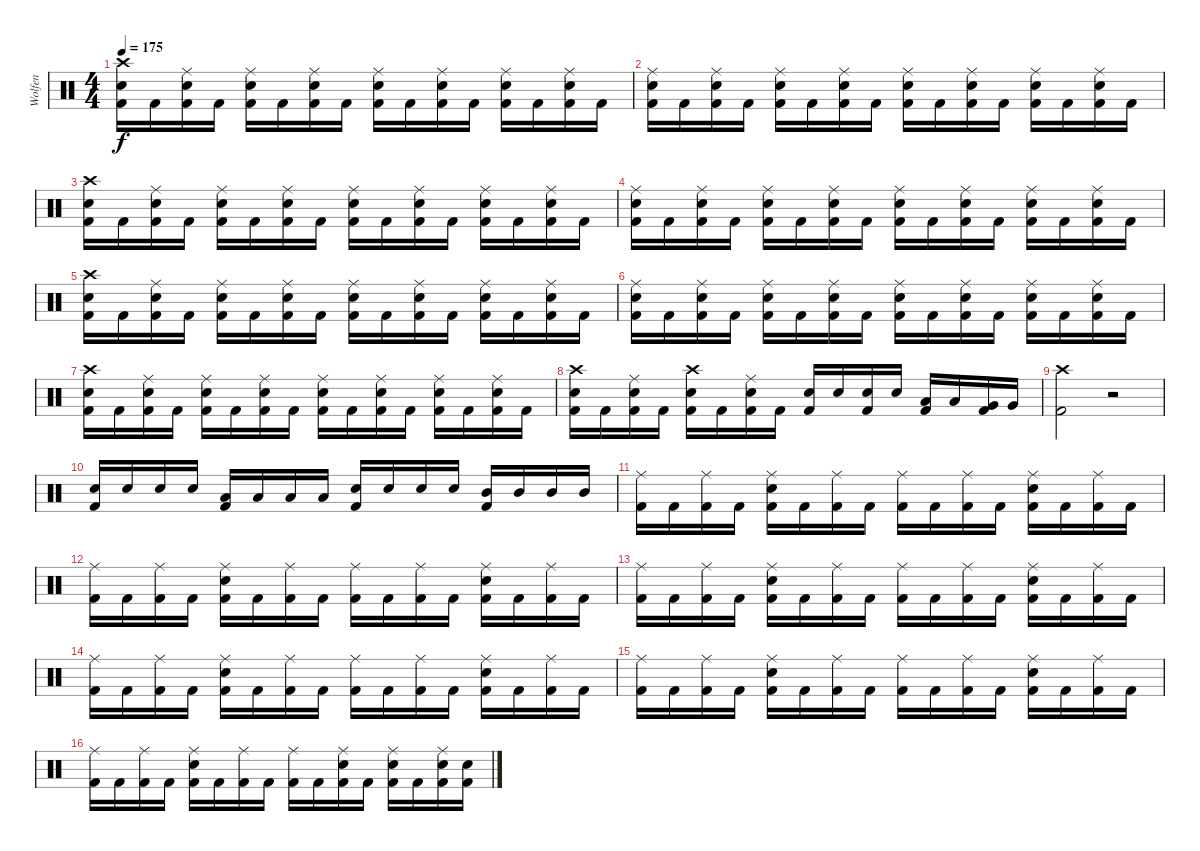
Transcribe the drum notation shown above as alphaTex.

\track ("Wolfen" "Wolfen") {instrument percussion}
\staff {score}
\articulation defaults
\ts (4 4)
\tempo 175
\clef neutral
\ks c
("Crash high (hit)" "Electric Snare (hit)" "Kick (hit) 2").16{dy f} "Kick (hit) 2".16 ("Ride (middle)" "Electric Snare (hit)" "Kick (hit) 2").16 "Kick (hit) 2".16 ("Ride (middle)" "Electric Snare (hit)" "Kick (hit) 2").16 "Kick (hit) 2".16 ("Ride (middle)" "Electric Snare (hit)" "Kick (hit) 2").16 "Kick (hit) 2".16 ("Ride (middle)" "Electric Snare (hit)" "Kick (hit) 2").16 "Kick (hit) 2".16 ("Ride (middle)" "Electric Snare (hit)" "Kick (hit) 2").16 "Kick (hit) 2".16 ("Ride (middle)" "Electric Snare (hit)" "Kick (hit) 2").16 "Kick (hit) 2".16 ("Ride (middle)" "Electric Snare (hit)" "Kick (hit) 2").16 "Kick (hit) 2".16 |
("Ride (middle)" "Electric Snare (hit)" "Kick (hit) 2").16 "Kick (hit) 2".16 ("Ride (middle)" "Electric Snare (hit)" "Kick (hit) 2").16 "Kick (hit) 2".16 ("Ride (middle)" "Electric Snare (hit)" "Kick (hit) 2").16 "Kick (hit) 2".16 ("Ride (middle)" "Electric Snare (hit)" "Kick (hit) 2").16 "Kick (hit) 2".16 ("Ride (middle)" "Electric Snare (hit)" "Kick (hit) 2").16 "Kick (hit) 2".16 ("Ride (middle)" "Electric Snare (hit)" "Kick (hit) 2").16 "Kick (hit) 2".16 ("Ride (middle)" "Electric Snare (hit)" "Kick (hit) 2").16 "Kick (hit) 2".16 ("Ride (middle)" "Electric Snare (hit)" "Kick (hit) 2").16 "Kick (hit) 2".16 |
("Crash high (hit)" "Electric Snare (hit)" "Kick (hit) 2").16 "Kick (hit) 2".16 ("Ride (middle)" "Electric Snare (hit)" "Kick (hit) 2").16 "Kick (hit) 2".16 ("Ride (middle)" "Electric Snare (hit)" "Kick (hit) 2").16 "Kick (hit) 2".16 ("Ride (middle)" "Electric Snare (hit)" "Kick (hit) 2").16 "Kick (hit) 2".16 ("Ride (middle)" "Electric Snare (hit)" "Kick (hit) 2").16 "Kick (hit) 2".16 ("Ride (middle)" "Electric Snare (hit)" "Kick (hit) 2").16 "Kick (hit) 2".16 ("Ride (middle)" "Electric Snare (hit)" "Kick (hit) 2").16 "Kick (hit) 2".16 ("Ride (middle)" "Electric Snare (hit)" "Kick (hit) 2").16 "Kick (hit) 2".16 |
("Ride (middle)" "Electric Snare (hit)" "Kick (hit) 2").16 "Kick (hit) 2".16 ("Ride (middle)" "Electric Snare (hit)" "Kick (hit) 2").16 "Kick (hit) 2".16 ("Ride (middle)" "Electric Snare (hit)" "Kick (hit) 2").16 "Kick (hit) 2".16 ("Ride (middle)" "Electric Snare (hit)" "Kick (hit) 2").16 "Kick (hit) 2".16 ("Ride (middle)" "Electric Snare (hit)" "Kick (hit) 2").16 "Kick (hit) 2".16 ("Ride (middle)" "Electric Snare (hit)" "Kick (hit) 2").16 "Kick (hit) 2".16 ("Ride (middle)" "Electric Snare (hit)" "Kick (hit) 2").16 "Kick (hit) 2".16 ("Ride (middle)" "Electric Snare (hit)" "Kick (hit) 2").16 "Kick (hit) 2".16 |
("Crash high (hit)" "Electric Snare (hit)" "Kick (hit) 2").16 "Kick (hit) 2".16 ("Ride (middle)" "Electric Snare (hit)" "Kick (hit) 2").16 "Kick (hit) 2".16 ("Ride (middle)" "Electric Snare (hit)" "Kick (hit) 2").16 "Kick (hit) 2".16 ("Ride (middle)" "Electric Snare (hit)" "Kick (hit) 2").16 "Kick (hit) 2".16 ("Ride (middle)" "Electric Snare (hit)" "Kick (hit) 2").16 "Kick (hit) 2".16 ("Ride (middle)" "Electric Snare (hit)" "Kick (hit) 2").16 "Kick (hit) 2".16 ("Ride (middle)" "Electric Snare (hit)" "Kick (hit) 2").16 "Kick (hit) 2".16 ("Ride (middle)" "Electric Snare (hit)" "Kick (hit) 2").16 "Kick (hit) 2".16 |
("Ride (middle)" "Electric Snare (hit)" "Kick (hit) 2").16 "Kick (hit) 2".16 ("Ride (middle)" "Electric Snare (hit)" "Kick (hit) 2").16 "Kick (hit) 2".16 ("Ride (middle)" "Electric Snare (hit)" "Kick (hit) 2").16 "Kick (hit) 2".16 ("Ride (middle)" "Electric Snare (hit)" "Kick (hit) 2").16 "Kick (hit) 2".16 ("Ride (middle)" "Electric Snare (hit)" "Kick (hit) 2").16 "Kick (hit) 2".16 ("Ride (middle)" "Electric Snare (hit)" "Kick (hit) 2").16 "Kick (hit) 2".16 ("Ride (middle)" "Electric Snare (hit)" "Kick (hit) 2").16 "Kick (hit) 2".16 ("Ride (middle)" "Electric Snare (hit)" "Kick (hit) 2").16 "Kick (hit) 2".16 |
("Crash high (hit)" "Electric Snare (hit)" "Kick (hit) 2").16 "Kick (hit) 2".16 ("Ride (middle)" "Electric Snare (hit)" "Kick (hit) 2").16 "Kick (hit) 2".16 ("Ride (middle)" "Electric Snare (hit)" "Kick (hit) 2").16 "Kick (hit) 2".16 ("Ride (middle)" "Electric Snare (hit)" "Kick (hit) 2").16 "Kick (hit) 2".16 ("Ride (middle)" "Electric Snare (hit)" "Kick (hit) 2").16 "Kick (hit) 2".16 ("Ride (middle)" "Electric Snare (hit)" "Kick (hit) 2").16 "Kick (hit) 2".16 ("Ride (middle)" "Electric Snare (hit)" "Kick (hit) 2").16 "Kick (hit) 2".16 ("Ride (middle)" "Electric Snare (hit)" "Kick (hit) 2").16 "Kick (hit) 2".16 |
("Crash high (hit)" "Electric Snare (hit)" "Kick (hit) 2").16 "Kick (hit) 2".16 ("Ride (middle)" "Electric Snare (hit)" "Kick (hit) 2").16 "Kick (hit) 2".16 ("Crash high (hit)" "Electric Snare (hit)" "Kick (hit) 2").16 "Kick (hit) 2".16 ("Ride (middle)" "Electric Snare (hit)" "Kick (hit) 2").16 "Kick (hit) 2".16 ("Electric Snare (hit)" "Kick (hit) 2").16 "Electric Snare (hit)".16 ("Electric Snare (hit)" "Kick (hit) 2").16 "Electric Snare (hit)".16 ("Low Tom (hit)" "Kick (hit) 2").16 "Low Tom (hit)".16 ("Very Low Tom (hit)" "Kick (hit) 2").16 "Very Low Tom (hit)".16 |
("Crash high (hit)" "Kick (hit) 2").2 r.2 |
("Electric Snare (hit)" "Kick (hit) 2").16 "Electric Snare (hit)".16 "Electric Snare (hit)".16 "Electric Snare (hit)".16 ("Low Tom (hit)" "Kick (hit) 2").16 "Low Tom (hit)".16 "Low Tom (hit)".16 "Low Tom (hit)".16 ("Electric Snare (hit)" "Kick (hit) 2").16 "Electric Snare (hit)".16 "Electric Snare (hit)".16 "Electric Snare (hit)".16 ("Mid Tom (hit)" "Kick (hit) 2").16 "Mid Tom (hit)".16 "Mid Tom (hit)".16 "Mid Tom (hit)".16 |
("Ride (middle)" "Kick (hit) 2").16 "Kick (hit) 2".16 ("Ride (middle)" "Kick (hit) 2").16 "Kick (hit) 2".16 ("Ride (middle)" "Electric Snare (hit)" "Kick (hit) 2").16 "Kick (hit) 2".16 ("Ride (middle)" "Kick (hit) 2").16 "Kick (hit) 2".16 ("Ride (middle)" "Kick (hit) 2").16 "Kick (hit) 2".16 ("Ride (middle)" "Kick (hit) 2").16 "Kick (hit) 2".16 ("Ride (middle)" "Electric Snare (hit)" "Kick (hit) 2").16 "Kick (hit) 2".16 ("Ride (middle)" "Kick (hit) 2").16 "Kick (hit) 2".16 |
("Ride (middle)" "Kick (hit) 2").16 "Kick (hit) 2".16 ("Ride (middle)" "Kick (hit) 2").16 "Kick (hit) 2".16 ("Ride (middle)" "Electric Snare (hit)" "Kick (hit) 2").16 "Kick (hit) 2".16 ("Ride (middle)" "Kick (hit) 2").16 "Kick (hit) 2".16 ("Ride (middle)" "Kick (hit) 2").16 "Kick (hit) 2".16 ("Ride (middle)" "Kick (hit) 2").16 "Kick (hit) 2".16 ("Ride (middle)" "Electric Snare (hit)" "Kick (hit) 2").16 "Kick (hit) 2".16 ("Ride (middle)" "Kick (hit) 2").16 "Kick (hit) 2".16 |
("Ride (middle)" "Kick (hit) 2").16 "Kick (hit) 2".16 ("Ride (middle)" "Kick (hit) 2").16 "Kick (hit) 2".16 ("Ride (middle)" "Electric Snare (hit)" "Kick (hit) 2").16 "Kick (hit) 2".16 ("Ride (middle)" "Kick (hit) 2").16 "Kick (hit) 2".16 ("Ride (middle)" "Kick (hit) 2").16 "Kick (hit) 2".16 ("Ride (middle)" "Kick (hit) 2").16 "Kick (hit) 2".16 ("Ride (middle)" "Electric Snare (hit)" "Kick (hit) 2").16 "Kick (hit) 2".16 ("Ride (middle)" "Kick (hit) 2").16 "Kick (hit) 2".16 |
("Ride (middle)" "Kick (hit) 2").16 "Kick (hit) 2".16 ("Ride (middle)" "Kick (hit) 2").16 "Kick (hit) 2".16 ("Ride (middle)" "Electric Snare (hit)" "Kick (hit) 2").16 "Kick (hit) 2".16 ("Ride (middle)" "Kick (hit) 2").16 "Kick (hit) 2".16 ("Ride (middle)" "Kick (hit) 2").16 "Kick (hit) 2".16 ("Ride (middle)" "Kick (hit) 2").16 "Kick (hit) 2".16 ("Ride (middle)" "Electric Snare (hit)" "Kick (hit) 2").16 "Kick (hit) 2".16 ("Ride (middle)" "Kick (hit) 2").16 "Kick (hit) 2".16 |
("Ride (middle)" "Kick (hit) 2").16 "Kick (hit) 2".16 ("Ride (middle)" "Kick (hit) 2").16 "Kick (hit) 2".16 ("Ride (middle)" "Electric Snare (hit)" "Kick (hit) 2").16 "Kick (hit) 2".16 ("Ride (middle)" "Kick (hit) 2").16 "Kick (hit) 2".16 ("Ride (middle)" "Kick (hit) 2").16 "Kick (hit) 2".16 ("Ride (middle)" "Kick (hit) 2").16 "Kick (hit) 2".16 ("Ride (middle)" "Electric Snare (hit)" "Kick (hit) 2").16 "Kick (hit) 2".16 ("Ride (middle)" "Kick (hit) 2").16 "Kick (hit) 2".16 |
("Ride (middle)" "Kick (hit) 2").16 "Kick (hit) 2".16 ("Ride (middle)" "Kick (hit) 2").16 "Kick (hit) 2".16 ("Ride (middle)" "Electric Snare (hit)" "Kick (hit) 2").16 "Kick (hit) 2".16 ("Ride (middle)" "Kick (hit) 2").16 "Kick (hit) 2".16 ("Ride (middle)" "Kick (hit) 2").16 "Kick (hit) 2".16 ("Ride (middle)" "Electric Snare (hit)" "Kick (hit) 2").16 "Kick (hit) 2".16 ("Ride (middle)" "Electric Snare (hit)" "Kick (hit) 2").16 "Kick (hit) 2".16 ("Ride (middle)" "Electric Snare (hit)" "Kick (hit) 2").16 ("Electric Snare (hit)" "Kick (hit) 2").16
